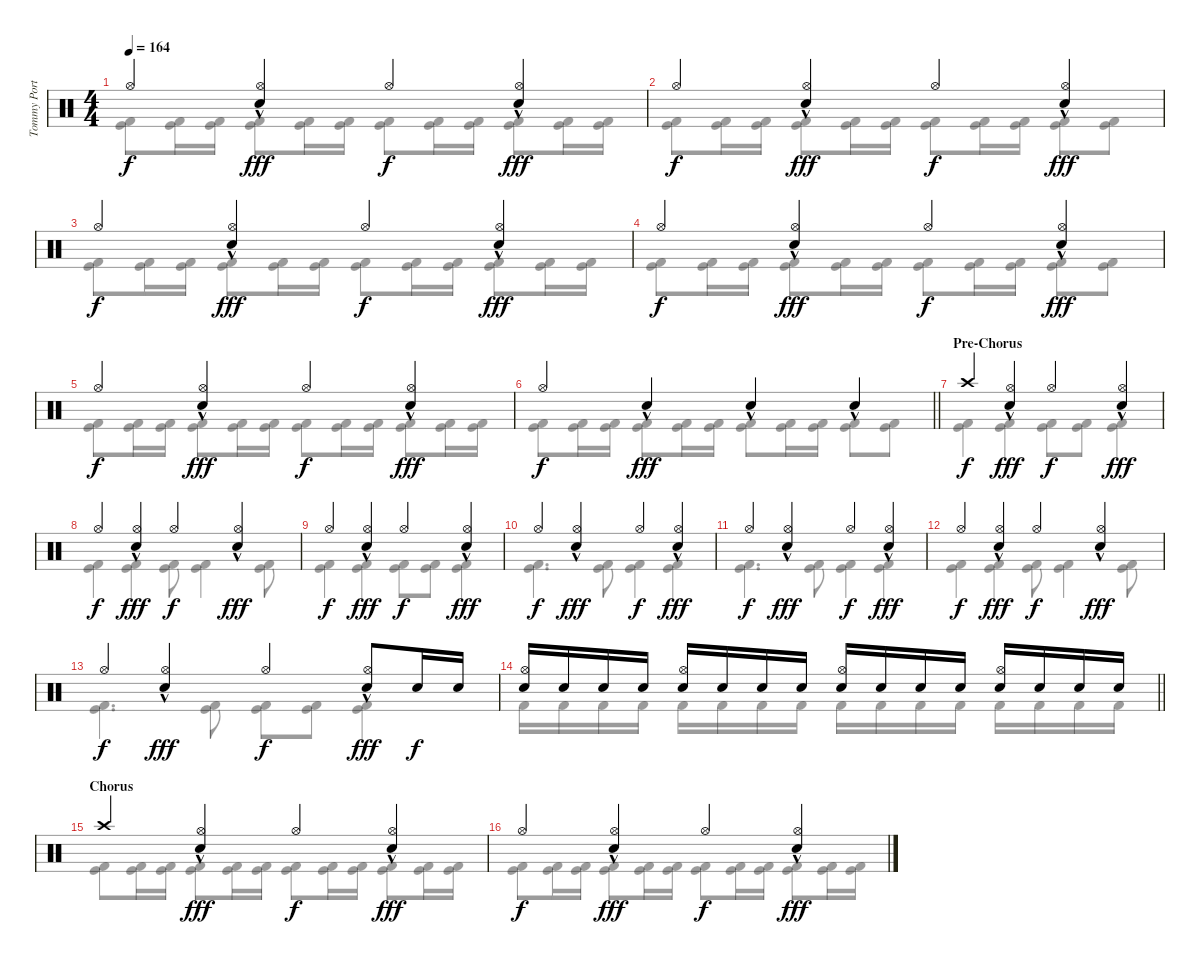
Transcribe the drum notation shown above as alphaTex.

\track ("Tommy Portimo" "Tommy Port") {instrument percussion}
\staff {score}
\articulation defaults
\voice
\ts (4 4)
\tempo 164
\clef neutral
\ks c "Hi-Hat (open)".4{dy f}
("Snare (hit) 2"{hac} "Hi-Hat (open)").4{dy fff} "Hi-Hat (open)".4{dy f} ("Snare (hit) 2"{hac} "Hi-Hat (open)").4{dy fff} |
"Hi-Hat (open)".4{dy f} ("Snare (hit) 2"{hac} "Hi-Hat (open)").4{dy fff} "Hi-Hat (open)".4{dy f} ("Snare (hit) 2"{hac} "Hi-Hat (open)").4{dy fff} |
"Hi-Hat (open)".4{dy f} ("Snare (hit) 2"{hac} "Hi-Hat (open)").4{dy fff} "Hi-Hat (open)".4{dy f} ("Snare (hit) 2"{hac} "Hi-Hat (open)").4{dy fff} |
"Hi-Hat (open)".4{dy f} ("Snare (hit) 2"{hac} "Hi-Hat (open)").4{dy fff} "Hi-Hat (open)".4{dy f} ("Snare (hit) 2"{hac} "Hi-Hat (open)").4{dy fff} |
"Hi-Hat (open)".4{dy f} ("Snare (hit) 2"{hac} "Hi-Hat (open)").4{dy fff} "Hi-Hat (open)".4{dy f} ("Snare (hit) 2"{hac} "Hi-Hat (open)").4{dy fff} |
\barLineRight lightlight "Hi-Hat (open)".4{dy f} "Snare (hit) 2"{hac}.4{dy fff} "Snare (hit) 2"{hac}.4 "Snare (hit) 2"{hac}.4
|
\section ("" "Pre-Chorus")
"Crash high (hit)".4{dy f} ("Snare (hit) 2"{hac} "Hi-Hat (open)").4{dy fff} "Hi-Hat (open)".4{dy f} ("Snare (hit) 2"{hac} "Hi-Hat (open)").4{dy fff} |
"Hi-Hat (open)".4{dy f} ("Snare (hit) 2"{hac} "Hi-Hat (open)").4{dy fff} "Hi-Hat (open)".4{dy f} ("Snare (hit) 2"{hac} "Hi-Hat (open)").4{dy fff} |
"Hi-Hat (open)".4{dy f} ("Snare (hit) 2"{hac} "Hi-Hat (open)").4{dy fff} "Hi-Hat (open)".4{dy f} ("Snare (hit) 2"{hac} "Hi-Hat (open)").4{dy fff} |
"Hi-Hat (open)".4{dy f} ("Snare (hit) 2"{hac} "Hi-Hat (open)").4{dy fff} "Hi-Hat (open)".4{dy f} ("Snare (hit) 2"{hac} "Hi-Hat (open)").4{dy fff} |
"Hi-Hat (open)".4{dy f} ("Snare (hit) 2"{hac} "Hi-Hat (open)").4{dy fff} "Hi-Hat (open)".4{dy f} ("Snare (hit) 2"{hac} "Hi-Hat (open)").4{dy fff} |
"Hi-Hat (open)".4{dy f} ("Snare (hit) 2"{hac} "Hi-Hat (open)").4{dy fff} "Hi-Hat (open)".4{dy f} ("Snare (hit) 2"{hac} "Hi-Hat (open)").4{dy fff} |
"Hi-Hat (open)".4{dy f} ("Snare (hit) 2"{hac} "Hi-Hat (open)").4{dy fff} "Hi-Hat (open)".4{dy f} ("Snare (hit) 2"{hac} "Hi-Hat (open)").8{dy fff} "Snare (hit) 2".16{dy f} "Snare (hit) 2".16 |
\barLineRight lightlight
("Snare (hit) 2" "Hi-Hat (open)").16 "Snare (hit) 2".16 "Snare (hit) 2".16 "Snare (hit) 2".16 ("Snare (hit) 2" "Hi-Hat (open)").16 "Snare (hit) 2".16 "Snare (hit) 2".16 "Snare (hit) 2".16 ("Snare (hit) 2" "Hi-Hat (open)").16 "Snare (hit) 2".16 "Snare (hit) 2".16 "Snare (hit) 2".16 ("Snare (hit) 2" "Hi-Hat (open)").16 "Snare (hit) 2".16 "Snare (hit) 2".16 "Snare (hit) 2".16 |
\section ("" "Chorus")
"Crash high (hit)".4 ("Snare (hit) 2"{hac} "Hi-Hat (open)").4{dy fff} "Hi-Hat (open)".4{dy f} ("Snare (hit) 2"{hac} "Hi-Hat (open)").4{dy fff} |
"Hi-Hat (open)".4{dy f} ("Snare (hit) 2"{hac} "Hi-Hat (open)").4{dy fff} "Hi-Hat (open)".4{dy f} ("Snare (hit) 2"{hac} "Hi-Hat (open)").4{dy fff}
\voice
\clef neutral
\ottava regular
\simile none
\ks c
("Kick (hit)" "Kick (hit) 2").8{dy f} ("Kick (hit)" "Kick (hit) 2").16 ("Kick (hit)" "Kick (hit) 2").16 ("Kick (hit)" "Kick (hit) 2").8 ("Kick (hit)" "Kick (hit) 2").16 ("Kick (hit)" "Kick (hit) 2").16 ("Kick (hit)" "Kick (hit) 2").8 ("Kick (hit)" "Kick (hit) 2").16 ("Kick (hit)" "Kick (hit) 2").16 ("Kick (hit)" "Kick (hit) 2").8 ("Kick (hit)" "Kick (hit) 2").16 ("Kick (hit)" "Kick (hit) 2").16 |
("Kick (hit)" "Kick (hit) 2").8 ("Kick (hit)" "Kick (hit) 2").16 ("Kick (hit)" "Kick (hit) 2").16 ("Kick (hit)" "Kick (hit) 2").8 ("Kick (hit)" "Kick (hit) 2").16 ("Kick (hit)" "Kick (hit) 2").16 ("Kick (hit)" "Kick (hit) 2").8 ("Kick (hit)" "Kick (hit) 2").16 ("Kick (hit)" "Kick (hit) 2").16 ("Kick (hit)" "Kick (hit) 2").8 ("Kick (hit)" "Kick (hit) 2").8 |
("Kick (hit)" "Kick (hit) 2").8 ("Kick (hit)" "Kick (hit) 2").16 ("Kick (hit)" "Kick (hit) 2").16 ("Kick (hit)" "Kick (hit) 2").8 ("Kick (hit)" "Kick (hit) 2").16 ("Kick (hit)" "Kick (hit) 2").16 ("Kick (hit)" "Kick (hit) 2").8 ("Kick (hit)" "Kick (hit) 2").16 ("Kick (hit)" "Kick (hit) 2").16 ("Kick (hit)" "Kick (hit) 2").8 ("Kick (hit)" "Kick (hit) 2").16 ("Kick (hit)" "Kick (hit) 2").16 |
("Kick (hit)" "Kick (hit) 2").8 ("Kick (hit)" "Kick (hit) 2").16 ("Kick (hit)" "Kick (hit) 2").16 ("Kick (hit)" "Kick (hit) 2").8 ("Kick (hit)" "Kick (hit) 2").16 ("Kick (hit)" "Kick (hit) 2").16 ("Kick (hit)" "Kick (hit) 2").8 ("Kick (hit)" "Kick (hit) 2").16 ("Kick (hit)" "Kick (hit) 2").16 ("Kick (hit)" "Kick (hit) 2").8 ("Kick (hit)" "Kick (hit) 2").8 |
("Kick (hit)" "Kick (hit) 2").8 ("Kick (hit)" "Kick (hit) 2").16 ("Kick (hit)" "Kick (hit) 2").16 ("Kick (hit)" "Kick (hit) 2").8 ("Kick (hit)" "Kick (hit) 2").16 ("Kick (hit)" "Kick (hit) 2").16 ("Kick (hit)" "Kick (hit) 2").8 ("Kick (hit)" "Kick (hit) 2").16 ("Kick (hit)" "Kick (hit) 2").16 ("Kick (hit)" "Kick (hit) 2").8 ("Kick (hit)" "Kick (hit) 2").16 ("Kick (hit)" "Kick (hit) 2").16 |
\barLineRight lightlight
("Kick (hit)" "Kick (hit) 2").8 ("Kick (hit)" "Kick (hit) 2").16 ("Kick (hit)" "Kick (hit) 2").16 ("Kick (hit)" "Kick (hit) 2").8 ("Kick (hit)" "Kick (hit) 2").16 ("Kick (hit)" "Kick (hit) 2").16 ("Kick (hit)" "Kick (hit) 2").8 ("Kick (hit)" "Kick (hit) 2").16 ("Kick (hit)" "Kick (hit) 2").16 ("Kick (hit)" "Kick (hit) 2").8 ("Kick (hit)" "Kick (hit) 2").8 |
("Kick (hit)" "Kick (hit) 2").4 ("Kick (hit)" "Kick (hit) 2").4 ("Kick (hit)" "Kick (hit) 2").8 ("Kick (hit)" "Kick (hit) 2").8 ("Kick (hit)" "Kick (hit) 2").4 |
("Kick (hit)" "Kick (hit) 2").4 ("Kick (hit)" "Kick (hit) 2").4 ("Kick (hit)" "Kick (hit) 2").8 ("Kick (hit)" "Kick (hit) 2").4 ("Kick (hit)" "Kick (hit) 2").8 |
("Kick (hit)" "Kick (hit) 2").4 ("Kick (hit)" "Kick (hit) 2").4 ("Kick (hit)" "Kick (hit) 2").8 ("Kick (hit)" "Kick (hit) 2").8 ("Kick (hit)" "Kick (hit) 2").4 |
("Kick (hit)" "Kick (hit) 2").4{d} ("Kick (hit)" "Kick (hit) 2").8 ("Kick (hit)" "Kick (hit) 2").4 ("Kick (hit)" "Kick (hit) 2").4 |
("Kick (hit)" "Kick (hit) 2").4{d} ("Kick (hit)" "Kick (hit) 2").8 ("Kick (hit)" "Kick (hit) 2").4 ("Kick (hit)" "Kick (hit) 2").4 |
("Kick (hit)" "Kick (hit) 2").4 ("Kick (hit)" "Kick (hit) 2").4 ("Kick (hit)" "Kick (hit) 2").8 ("Kick (hit)" "Kick (hit) 2").4 ("Kick (hit)" "Kick (hit) 2").8 |
("Kick (hit)" "Kick (hit) 2").4{d} ("Kick (hit)" "Kick (hit) 2").8 ("Kick (hit)" "Kick (hit) 2").8 ("Kick (hit)" "Kick (hit) 2").8 ("Kick (hit)" "Kick (hit) 2").4 |
\barLineRight lightlight "Kick (hit) 2".16 "Kick (hit) 2".16 "Kick (hit) 2".16 "Kick (hit) 2".16 "Kick (hit) 2".16 "Kick (hit) 2".16 "Kick (hit) 2".16 "Kick (hit) 2".16 "Kick (hit) 2".16 "Kick (hit) 2".16 "Kick (hit) 2".16 "Kick (hit) 2".16 "Kick (hit) 2".16 "Kick (hit) 2".16 "Kick (hit) 2".16 "Kick (hit) 2".16
|
("Kick (hit)" "Kick (hit) 2").8 ("Kick (hit)" "Kick (hit) 2").16 ("Kick (hit)" "Kick (hit) 2").16 ("Kick (hit)" "Kick (hit) 2").8 ("Kick (hit)" "Kick (hit) 2").16 ("Kick (hit)" "Kick (hit) 2").16 ("Kick (hit)" "Kick (hit) 2").8 ("Kick (hit)" "Kick (hit) 2").16 ("Kick (hit)" "Kick (hit) 2").16 ("Kick (hit)" "Kick (hit) 2").8 ("Kick (hit)" "Kick (hit) 2").16 ("Kick (hit)" "Kick (hit) 2").16 |
("Kick (hit)" "Kick (hit) 2").8 ("Kick (hit)" "Kick (hit) 2").16 ("Kick (hit)" "Kick (hit) 2").16 ("Kick (hit)" "Kick (hit) 2").8 ("Kick (hit)" "Kick (hit) 2").16 ("Kick (hit)" "Kick (hit) 2").16 ("Kick (hit)" "Kick (hit) 2").8 ("Kick (hit)" "Kick (hit) 2").16 ("Kick (hit)" "Kick (hit) 2").16 ("Kick (hit)" "Kick (hit) 2").8 ("Kick (hit)" "Kick (hit) 2").16 ("Kick (hit)" "Kick (hit) 2").16
